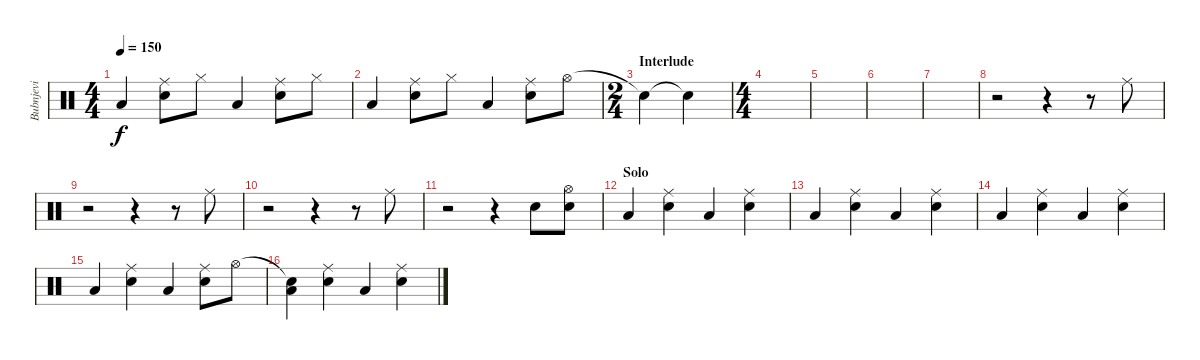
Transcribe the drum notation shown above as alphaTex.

\track ("Bubnjevi" "Bubnjevi") {instrument percussion}
\staff {score}
\articulation defaults
\ts (4 4)
\tempo 150
\clef neutral
\ks c "Low Tom (hit)".4{dy f}
("Ride (middle)" "Snare (hit) 2").8 "Hi-Hat (closed)".8 "Low Tom (hit)".4 ("Ride (middle)" "Snare (hit) 2").8 "Hi-Hat (closed)".8 |
"Low Tom (hit)".4 ("Ride (middle)" "Snare (hit) 2").8 "Hi-Hat (closed)".8 "Low Tom (hit)".4 ("Ride (middle)" "Snare (hit) 2").8 "Hi-Hat (open)".8 |
\ts (2 4)
\section ("" "Interlude")
"Snare (hit)"{t}.4 "Snare (hit)"{t}.4 |
\ts (4 4)
|
|
|
|
r.2 r.4 r.8 "Ride (middle)".8 |
r.2 r.4 r.8 "Ride (middle)".8 |
r.2 r.4 r.8 "Ride (middle)".8 |
r.2 r.4 "Snare (hit) 2".8 ("Hi-Hat (open)" "Snare (hit) 2").8 |
\section ("" "Solo")
"Low Tom (hit)".4 ("Ride (middle)" "Snare (hit) 2").4 "Low Tom (hit)".4 ("Ride (middle)" "Snare (hit) 2").4 |
"Low Tom (hit)".4 ("Ride (middle)" "Snare (hit) 2").4 "Low Tom (hit)".4 ("Ride (middle)" "Snare (hit) 2").4 |
"Low Tom (hit)".4 ("Ride (middle)" "Snare (hit) 2").4 "Low Tom (hit)".4 ("Ride (middle)" "Snare (hit) 2").4 |
"Low Tom (hit)".4 ("Ride (middle)" "Snare (hit) 2").4 "Low Tom (hit)".4 ("Ride (middle)" "Snare (hit) 2").8 "Hi-Hat (open)".8 |
("Snare (hit)"{t} "Low Tom (hit)").4 ("Ride (middle)" "Snare (hit) 2").4 "Low Tom (hit)".4 ("Ride (middle)" "Snare (hit) 2").4
